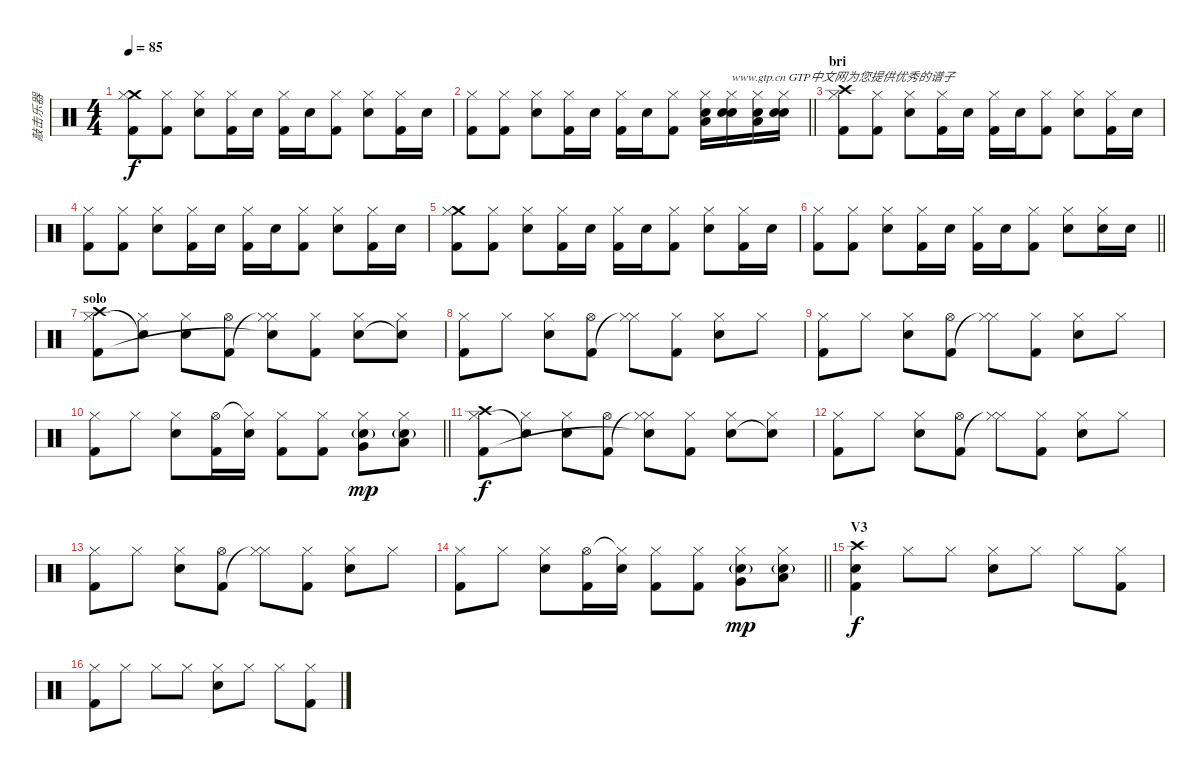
\track ("敲击乐器" "敲击乐器") {instrument percussion}
\staff {score}
\articulation defaults
\ts (4 4)
\tempo 85
\clef neutral
\ks c
("Crash medium (hit)" "Hi-Hat (closed)" "Kick (hit) 2").8{dy f} ("Hi-Hat (closed)" "Kick (hit) 2").8 ("Hi-Hat (closed)" "Electric Snare (hit)").8 ("Hi-Hat (closed)" "Kick (hit) 2").16 "Electric Snare (hit)".16 ("Hi-Hat (closed)" "Kick (hit) 2").16 "Electric Snare (hit)".16 ("Hi-Hat (closed)" "Kick (hit) 2").8 ("Hi-Hat (closed)" "Electric Snare (hit)").8 ("Hi-Hat (closed)" "Kick (hit) 2").16 "Electric Snare (hit)".16 |
\barLineRight lightlight
("Hi-Hat (closed)" "Kick (hit) 2").8 ("Hi-Hat (closed)" "Kick (hit) 2").8 ("Hi-Hat (closed)" "Electric Snare (hit)").8 ("Hi-Hat (closed)" "Kick (hit) 2").16 "Electric Snare (hit)".16 ("Hi-Hat (closed)" "Kick (hit) 2").16 "Electric Snare (hit)".16 ("Hi-Hat (closed)" "Kick (hit) 2").8 ("Low Tom (hit)" "Hi-Hat (closed)" "Electric Snare (hit)").16 ("Electric Snare (hit)" "Hi-Hat (closed)" "Electric Snare (hit)").16{txt "www.gtp.cn GTP中文网为您提供优秀的谱子"} ("Low Tom (hit)" "Hi-Hat (closed)" "Electric Snare (hit)").16 ("Electric Snare (hit)" "Hi-Hat (closed)" "Electric Snare (hit)").16 |
\section ("" "bri ")
("Crash high (hit)" "Hi-Hat (closed)" "Kick (hit) 2").8 ("Hi-Hat (closed)" "Kick (hit) 2").8 ("Hi-Hat (closed)" "Electric Snare (hit)").8 ("Hi-Hat (closed)" "Kick (hit) 2").16 "Electric Snare (hit)".16 ("Hi-Hat (closed)" "Kick (hit) 2").16 "Electric Snare (hit)".16 ("Hi-Hat (closed)" "Kick (hit) 2").8 ("Hi-Hat (closed)" "Electric Snare (hit)").8 ("Hi-Hat (closed)" "Kick (hit) 2").16 "Electric Snare (hit)".16 |
("Hi-Hat (closed)" "Kick (hit) 2").8 ("Hi-Hat (closed)" "Kick (hit) 2").8 ("Hi-Hat (closed)" "Electric Snare (hit)").8 ("Hi-Hat (closed)" "Kick (hit) 2").16 "Electric Snare (hit)".16 ("Hi-Hat (closed)" "Kick (hit) 2").16 "Electric Snare (hit)".16 ("Hi-Hat (closed)" "Kick (hit) 2").8 ("Hi-Hat (closed)" "Electric Snare (hit)").8 ("Hi-Hat (closed)" "Kick (hit) 2").16 "Electric Snare (hit)".16 |
("Crash medium (hit)" "Hi-Hat (closed)" "Kick (hit) 2").8 ("Hi-Hat (closed)" "Kick (hit) 2").8 ("Hi-Hat (closed)" "Electric Snare (hit)").8 ("Hi-Hat (closed)" "Kick (hit) 2").16 "Electric Snare (hit)".16 ("Hi-Hat (closed)" "Kick (hit) 2").16 "Electric Snare (hit)".16 ("Hi-Hat (closed)" "Kick (hit) 2").8 ("Hi-Hat (closed)" "Electric Snare (hit)").8 ("Hi-Hat (closed)" "Kick (hit) 2").16 "Electric Snare (hit)".16 |
\barLineRight lightlight
("Hi-Hat (closed)" "Kick (hit) 2").8 ("Hi-Hat (closed)" "Kick (hit) 2").8 ("Hi-Hat (closed)" "Electric Snare (hit)").8 ("Hi-Hat (closed)" "Kick (hit) 2").16 "Electric Snare (hit)".16 ("Hi-Hat (closed)" "Kick (hit) 2").16 "Electric Snare (hit)".16 ("Hi-Hat (closed)" "Kick (hit) 2").8 ("Hi-Hat (closed)" "Electric Snare (hit)").8 ("Hi-Hat (closed)" "Electric Snare (hit)").16 "Electric Snare (hit)".16 |
\section ("" "solo ")
("Crash high (hit)" "Hi-Hat (closed)" "Kick (hit) 2").8 ("Hi-Hat (closed)" "Snare (hit)"{t}).8 ("Hi-Hat (closed)" "Electric Snare (hit)").8 ("Hi-Hat (open)" "Kick (hit) 2").8 ("Hi-Hat (closed)" "Hi-Hat (closed)"{t} "Snare (hit)"{t}).8 ("Hi-Hat (closed)" "Kick (hit) 2").8 ("Hi-Hat (closed)" "Electric Snare (hit)").8 ("Hi-Hat (closed)" "Snare (hit)"{t}).8 |
("Hi-Hat (closed)" "Kick (hit) 2").8 "Hi-Hat (closed)".8 ("Hi-Hat (closed)" "Electric Snare (hit)").8 ("Hi-Hat (open)" "Kick (hit) 2").8 ("Hi-Hat (closed)" "Hi-Hat (closed)"{t}).8 ("Hi-Hat (closed)" "Kick (hit) 2").8 ("Hi-Hat (closed)" "Electric Snare (hit)").8 "Hi-Hat (closed)".8 |
("Hi-Hat (closed)" "Kick (hit) 2").8 "Hi-Hat (closed)".8 ("Hi-Hat (closed)" "Electric Snare (hit)").8 ("Hi-Hat (open)" "Kick (hit) 2").8 ("Hi-Hat (closed)" "Hi-Hat (closed)"{t}).8 ("Hi-Hat (closed)" "Kick (hit) 2").8 ("Hi-Hat (closed)" "Electric Snare (hit)").8 "Hi-Hat (closed)".8 |
\barLineRight lightlight
("Hi-Hat (closed)" "Kick (hit) 2").8 "Hi-Hat (closed)".8 ("Hi-Hat (closed)" "Electric Snare (hit)").8 ("Hi-Hat (open)" "Kick (hit) 2").16 ("Hi-Hat (closed)"{t} "Electric Snare (hit)").16 ("Hi-Hat (closed)" "Kick (hit) 2").8 ("Hi-Hat (closed)" "Kick (hit) 2").8 ("Electric Snare (hit)"{g} "Hi-Hat (closed)" "Very Low Tom (hit)").8{dy mp} ("Electric Snare (hit)"{g} "Hi-Hat (closed)" "Low Floor Tom (hit)").8 |
("Crash high (hit)" "Hi-Hat (closed)" "Kick (hit) 2").8{dy f} ("Hi-Hat (closed)" "Snare (hit)"{t}).8 ("Hi-Hat (closed)" "Electric Snare (hit)").8 ("Hi-Hat (open)" "Kick (hit) 2").8 ("Hi-Hat (closed)" "Hi-Hat (closed)"{t} "Snare (hit)"{t}).8 ("Hi-Hat (closed)" "Kick (hit) 2").8 ("Hi-Hat (closed)" "Electric Snare (hit)").8 ("Hi-Hat (closed)" "Snare (hit)"{t}).8 |
("Hi-Hat (closed)" "Kick (hit) 2").8 "Hi-Hat (closed)".8 ("Hi-Hat (closed)" "Electric Snare (hit)").8 ("Hi-Hat (open)" "Kick (hit) 2").8 ("Hi-Hat (closed)" "Hi-Hat (closed)"{t}).8 ("Hi-Hat (closed)" "Kick (hit) 2").8 ("Hi-Hat (closed)" "Electric Snare (hit)").8 "Hi-Hat (closed)".8 |
("Hi-Hat (closed)" "Kick (hit) 2").8 "Hi-Hat (closed)".8 ("Hi-Hat (closed)" "Electric Snare (hit)").8 ("Hi-Hat (open)" "Kick (hit) 2").8 ("Hi-Hat (closed)" "Hi-Hat (closed)"{t}).8 ("Hi-Hat (closed)" "Kick (hit) 2").8 ("Hi-Hat (closed)" "Electric Snare (hit)").8 "Hi-Hat (closed)".8 |
\barLineRight lightlight
("Hi-Hat (closed)" "Kick (hit) 2").8 "Hi-Hat (closed)".8 ("Hi-Hat (closed)" "Electric Snare (hit)").8 ("Hi-Hat (open)" "Kick (hit) 2").16 ("Hi-Hat (closed)"{t} "Electric Snare (hit)").16 ("Hi-Hat (closed)" "Kick (hit) 2").8 ("Hi-Hat (closed)" "Kick (hit) 2").8 ("Electric Snare (hit)"{g} "Hi-Hat (closed)" "Very Low Tom (hit)").8{dy mp} ("Electric Snare (hit)"{g} "Hi-Hat (closed)" "Low Floor Tom (hit)").8 |
\section ("" "V3")
("Electric Snare (hit)" "Crash high (hit)" "Kick (hit) 2").4{dy f} "Hi-Hat (closed)".8 "Hi-Hat (closed)".8 ("Hi-Hat (closed)" "Electric Snare (hit)").8 "Hi-Hat (closed)".8 "Hi-Hat (closed)".8 ("Hi-Hat (closed)" "Kick (hit) 2").8 |
("Hi-Hat (closed)" "Kick (hit) 2").8 "Hi-Hat (closed)".8 "Hi-Hat (closed)".8 "Hi-Hat (closed)".8 ("Hi-Hat (closed)" "Electric Snare (hit)").8 "Hi-Hat (closed)".8 "Hi-Hat (closed)".8 ("Kick (hit) 2" "Hi-Hat (closed)").8
